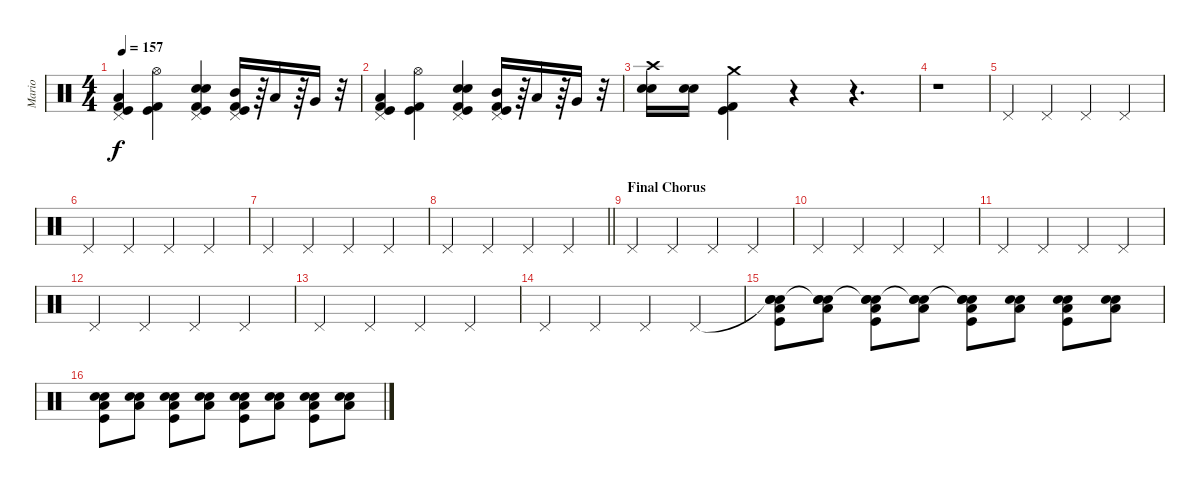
\track ("Mario" "Mario") {instrument percussion}
\staff {score}
\articulation defaults
\ts (4 4)
\tempo 157
\clef neutral
\ks c
("Pedal Hi-Hat (hit)" "Low Floor Tom (hit)" "Kick (hit)" "Kick (hit) 2").4{dy f} ("Hi-Hat (open)" "Kick (hit)" "Kick (hit) 2").4 ("Pedal Hi-Hat (hit)" "Snare (hit) 2" "Electric Snare (hit)" "Kick (hit)" "Kick (hit) 2").4 ("Pedal Hi-Hat (hit)" "Mid Tom (hit)" "Kick (hit)" "Kick (hit) 2").16 r.64 "Low Tom (hit)".16 r.64 "Very Low Tom (hit)".16 r.32 |
("Pedal Hi-Hat (hit)" "Low Floor Tom (hit)" "Kick (hit)" "Kick (hit) 2").4 ("Hi-Hat (open)" "Kick (hit)" "Kick (hit) 2").4 ("Pedal Hi-Hat (hit)" "Snare (hit) 2" "Electric Snare (hit)" "Kick (hit)" "Kick (hit) 2").4 ("Pedal Hi-Hat (hit)" "Mid Tom (hit)" "Kick (hit)" "Kick (hit) 2").16 r.64 "Low Tom (hit)".16 r.64 "Very Low Tom (hit)".16 r.32 |
("Crash high (hit)" "Snare (hit) 2" "Electric Snare (hit)").16 ("Snare (hit) 2" "Electric Snare (hit)").16 ("Crash medium (hit)" "Kick (hit)" "Kick (hit) 2").4 r.4 r.4{d} |
r.1 |
"Pedal Hi-Hat (hit)".4 "Pedal Hi-Hat (hit)".4 "Pedal Hi-Hat (hit)".4 "Pedal Hi-Hat (hit)".4 |
"Pedal Hi-Hat (hit)".4 "Pedal Hi-Hat (hit)".4 "Pedal Hi-Hat (hit)".4 "Pedal Hi-Hat (hit)".4 |
"Pedal Hi-Hat (hit)".4 "Pedal Hi-Hat (hit)".4 "Pedal Hi-Hat (hit)".4 "Pedal Hi-Hat (hit)".4 |
\barLineRight lightlight "Pedal Hi-Hat (hit)".4 "Pedal Hi-Hat (hit)".4 "Pedal Hi-Hat (hit)".4 "Pedal Hi-Hat (hit)".4
|
\section ("" "Final Chorus")
"Pedal Hi-Hat (hit)".4 "Pedal Hi-Hat (hit)".4 "Pedal Hi-Hat (hit)".4 "Pedal Hi-Hat (hit)".4 |
"Pedal Hi-Hat (hit)".4 "Pedal Hi-Hat (hit)".4 "Pedal Hi-Hat (hit)".4 "Pedal Hi-Hat (hit)".4 |
"Pedal Hi-Hat (hit)".4 "Pedal Hi-Hat (hit)".4 "Pedal Hi-Hat (hit)".4 "Pedal Hi-Hat (hit)".4 |
"Pedal Hi-Hat (hit)".4 "Pedal Hi-Hat (hit)".4 "Pedal Hi-Hat (hit)".4 "Pedal Hi-Hat (hit)".4 |
"Pedal Hi-Hat (hit)".4 "Pedal Hi-Hat (hit)".4 "Pedal Hi-Hat (hit)".4 "Pedal Hi-Hat (hit)".4 |
"Pedal Hi-Hat (hit)".4 "Pedal Hi-Hat (hit)".4 "Pedal Hi-Hat (hit)".4 "Pedal Hi-Hat (hit)".4 |
("Snare (hit)"{t} "Snare (hit) 2" "Electric Snare (hit)" "Low Floor Tom (hit)" "Kick (hit)").8{volume 5} ("Snare (hit)"{t} "Snare (hit) 2" "Electric Snare (hit)" "Low Floor Tom (hit)").8 ("Snare (hit)"{t} "Snare (hit) 2" "Electric Snare (hit)" "Low Floor Tom (hit)" "Kick (hit)").8 ("Snare (hit)"{t} "Snare (hit) 2" "Electric Snare (hit)" "Low Floor Tom (hit)").8 ("Snare (hit)"{t} "Snare (hit) 2" "Electric Snare (hit)" "Low Floor Tom (hit)" "Kick (hit)").8 ("Snare (hit) 2" "Electric Snare (hit)" "Low Floor Tom (hit)").8 ("Snare (hit) 2" "Electric Snare (hit)" "Low Floor Tom (hit)" "Kick (hit)").8 ("Snare (hit) 2" "Electric Snare (hit)" "Low Floor Tom (hit)").8 |
("Snare (hit) 2" "Electric Snare (hit)" "Low Floor Tom (hit)" "Kick (hit)").8{volume 7} ("Snare (hit) 2" "Electric Snare (hit)" "Low Floor Tom (hit)").8 ("Snare (hit) 2" "Electric Snare (hit)" "Low Floor Tom (hit)" "Kick (hit)").8 ("Snare (hit) 2" "Electric Snare (hit)" "Low Floor Tom (hit)").8 ("Snare (hit) 2" "Electric Snare (hit)" "Low Floor Tom (hit)" "Kick (hit)").8 ("Snare (hit) 2" "Electric Snare (hit)" "Low Floor Tom (hit)").8 ("Snare (hit) 2" "Electric Snare (hit)" "Low Floor Tom (hit)" "Kick (hit)").8 ("Snare (hit) 2" "Electric Snare (hit)" "Low Floor Tom (hit)").8
